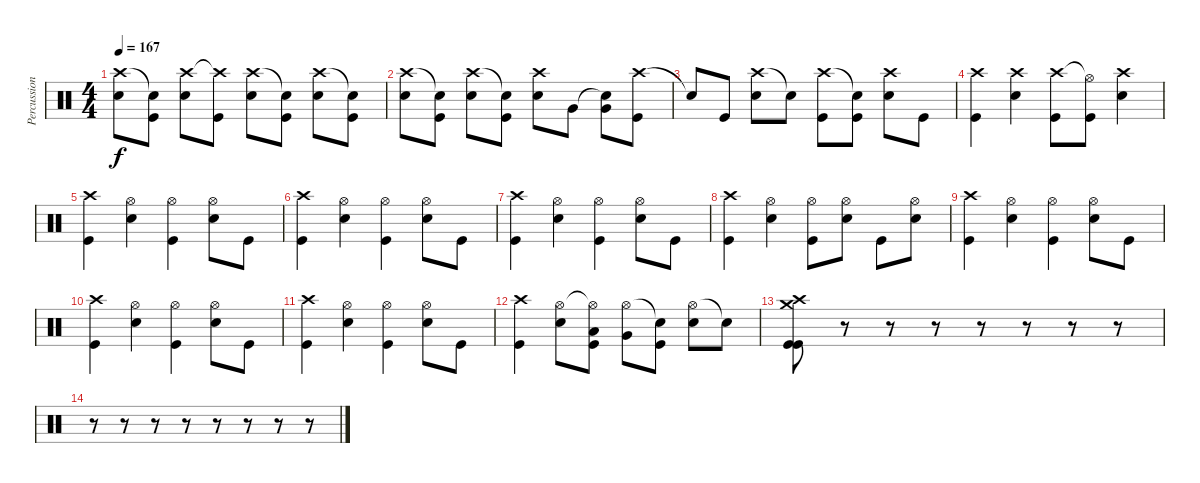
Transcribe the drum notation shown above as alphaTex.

\track ("Percussion" "Percussion") {instrument percussion}
\staff {score}
\articulation defaults
\ts (4 4)
\tempo 167
\clef neutral
\ks c
("Crash high (hit)" "Electric Snare (hit)").8{dy f} ("Snare (hit)"{t} "Kick (hit)").8 ("Crash high (hit)" "Electric Snare (hit)").8 ("Crash high (hit)"{t} "Kick (hit)").8 ("Crash high (hit)" "Electric Snare (hit)").8 ("Snare (hit)"{t} "Kick (hit)").8 ("Crash high (hit)" "Electric Snare (hit)").8 ("Snare (hit)"{t} "Kick (hit)").8 |
("Crash high (hit)" "Electric Snare (hit)").8 ("Snare (hit)"{t} "Kick (hit)").8 ("Crash high (hit)" "Electric Snare (hit)").8 ("Snare (hit)"{t} "Kick (hit)").8 ("Crash high (hit)" "Electric Snare (hit)").8 "Very Low Tom (hit)".8 ("Snare (hit)"{t} "Very Low Tom (hit)").8 ("Crash high (hit)" "Kick (hit)").8 |
"Snare (hit)"{t}.8 "Kick (hit)".8 ("Crash high (hit)" "Electric Snare (hit)").8 "Snare (hit)"{t}.8 ("Crash high (hit)" "Kick (hit)").8 ("Snare (hit)"{t} "Kick (hit)").8 ("Crash high (hit)" "Electric Snare (hit)").8 "Kick (hit)".8 |
("Crash high (hit)" "Kick (hit)").4 ("Crash high (hit)" "Electric Snare (hit)").4 ("Crash high (hit)" "Kick (hit)").8 ("Hi-Hat (open)"{t} "Kick (hit)").8 ("Crash high (hit)" "Electric Snare (hit)").4 |
("Crash high (hit)" "Kick (hit)").4 ("Hi-Hat (open)" "Electric Snare (hit)").4 ("Hi-Hat (open)" "Kick (hit)").4 ("Hi-Hat (open)" "Electric Snare (hit)").8 "Kick (hit)".8 |
("Crash high (hit)" "Kick (hit)").4 ("Hi-Hat (open)" "Electric Snare (hit)").4 ("Hi-Hat (open)" "Kick (hit)").4 ("Hi-Hat (open)" "Electric Snare (hit)").8 "Kick (hit)".8 |
("Crash high (hit)" "Kick (hit)").4 ("Hi-Hat (open)" "Electric Snare (hit)").4 ("Hi-Hat (open)" "Kick (hit)").4 ("Hi-Hat (open)" "Electric Snare (hit)").8 "Kick (hit)".8 |
("Crash high (hit)" "Kick (hit)").4 ("Hi-Hat (open)" "Electric Snare (hit)").4 ("Hi-Hat (open)" "Kick (hit)").8 ("Hi-Hat (open)" "Electric Snare (hit)").8 "Kick (hit)".8 ("Hi-Hat (open)" "Electric Snare (hit)").8 |
("Crash high (hit)" "Kick (hit)").4 ("Hi-Hat (open)" "Electric Snare (hit)").4 ("Hi-Hat (open)" "Kick (hit)").4 ("Hi-Hat (open)" "Electric Snare (hit)").8 "Kick (hit)".8 |
("Crash high (hit)" "Kick (hit)").4 ("Hi-Hat (open)" "Electric Snare (hit)").4 ("Hi-Hat (open)" "Kick (hit)").4 ("Hi-Hat (open)" "Electric Snare (hit)").8 "Kick (hit)".8 |
("Crash high (hit)" "Kick (hit)").4 ("Hi-Hat (open)" "Electric Snare (hit)").4 ("Hi-Hat (open)" "Kick (hit)").4 ("Hi-Hat (open)" "Electric Snare (hit)").8 "Kick (hit)".8 |
("Crash high (hit)" "Kick (hit)").4 ("Hi-Hat (open)" "Electric Snare (hit)").8 ("Hi-Hat (open)"{t} "Low Tom (hit)" "Kick (hit)").8 ("Hi-Hat (open)" "Very Low Tom (hit)").8 ("Snare (hit)"{t} "Kick (hit)").8 ("Hi-Hat (open)" "Electric Snare (hit)").8 "Snare (hit)"{t}.8 |
("Crash medium (hit)" "Crash high (hit)" "Kick (hit)" "Kick (hit)").8 r.8 r.8 r.8 r.8 r.8 r.8 r.8 |
r.8 r.8 r.8 r.8 r.8 r.8 r.8 r.8
